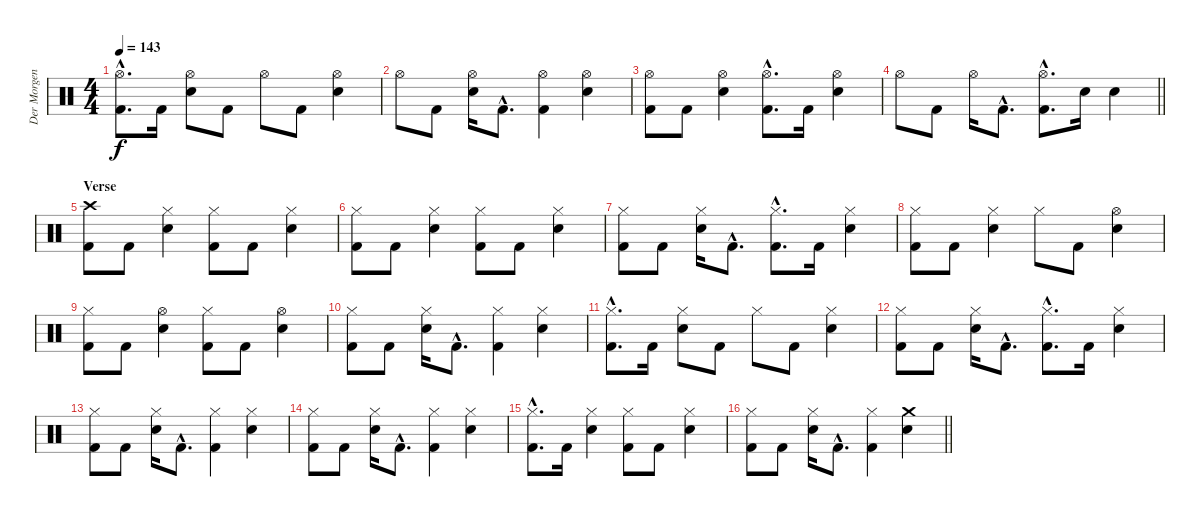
\track ("Der Morgenstern" "Der Morgen") {instrument percussion}
\staff {score}
\articulation defaults
\ts (4 4)
\tempo 143
\clef neutral
\ks c
("Hi-Hat (open)"{hac} "Kick (hit) 2"{hac}).8{d dy f} "Kick (hit) 2".16 ("Hi-Hat (open)" "Electric Snare (hit)").8 "Kick (hit) 2".8 "Hi-Hat (open)".8 "Kick (hit) 2".8 ("Hi-Hat (open)" "Electric Snare (hit)").4 |
"Hi-Hat (open)".8 "Kick (hit) 2".8 ("Hi-Hat (open)" "Electric Snare (hit)").16 "Kick (hit) 2"{hac}.8{d} ("Hi-Hat (open)" "Kick (hit) 2").4 ("Hi-Hat (open)" "Electric Snare (hit)").4 |
("Hi-Hat (open)" "Kick (hit) 2").8 "Kick (hit) 2".8 ("Hi-Hat (open)" "Electric Snare (hit)").4 ("Hi-Hat (open)"{hac} "Kick (hit) 2"{hac}).8{d} "Kick (hit) 2".16 ("Hi-Hat (open)" "Electric Snare (hit)").4 |
\barLineRight lightlight "Hi-Hat (open)".8 "Kick (hit) 2".8 "Hi-Hat (open)".16 "Kick (hit) 2"{hac}.8{d}
("Hi-Hat (open)"{hac} "Kick (hit) 2"{hac}).8{d} "Electric Snare (hit)".16 "Electric Snare (hit)".4 |
\section ("" "Verse")
("Crash high (hit)" "Kick (hit) 2").8 "Kick (hit) 2".8 ("Hi-Hat (closed)" "Electric Snare (hit)").4 ("Hi-Hat (closed)" "Kick (hit) 2").8 "Kick (hit) 2".8 ("Hi-Hat (closed)" "Electric Snare (hit)").4 |
("Hi-Hat (closed)" "Kick (hit) 2").8 "Kick (hit) 2".8 ("Hi-Hat (closed)" "Electric Snare (hit)").4 ("Hi-Hat (closed)" "Kick (hit) 2").8 "Kick (hit) 2".8 ("Hi-Hat (closed)" "Electric Snare (hit)").4 |
("Hi-Hat (closed)" "Kick (hit) 2").8 "Kick (hit) 2".8 ("Hi-Hat (closed)" "Electric Snare (hit)").16 "Kick (hit) 2"{hac}.8{d} ("Hi-Hat (closed)"{hac} "Kick (hit) 2"{hac}).8{d} "Kick (hit) 2".16 ("Hi-Hat (closed)" "Electric Snare (hit)").4 |
("Hi-Hat (closed)" "Kick (hit) 2").8 "Kick (hit) 2".8 ("Hi-Hat (closed)" "Electric Snare (hit)").4 "Hi-Hat (closed)".8 "Kick (hit) 2".8 ("Hi-Hat (open)" "Electric Snare (hit)").4 |
("Hi-Hat (closed)" "Kick (hit) 2").8 "Kick (hit) 2".8 ("Hi-Hat (open)" "Electric Snare (hit)").4 ("Hi-Hat (closed)" "Kick (hit) 2").8 "Kick (hit) 2".8 ("Hi-Hat (open)" "Electric Snare (hit)").4 |
("Hi-Hat (closed)" "Kick (hit) 2").8 "Kick (hit) 2".8 ("Hi-Hat (closed)" "Electric Snare (hit)").16 "Kick (hit) 2"{hac}.8{d} ("Hi-Hat (closed)" "Kick (hit) 2").4 ("Hi-Hat (closed)" "Electric Snare (hit)").4 |
("Hi-Hat (closed)"{hac} "Kick (hit) 2"{hac}).8{d} "Kick (hit) 2".16 ("Hi-Hat (closed)" "Electric Snare (hit)").8 "Kick (hit) 2".8 "Hi-Hat (closed)".8 "Kick (hit) 2".8 ("Hi-Hat (closed)" "Electric Snare (hit)").4 |
("Hi-Hat (closed)" "Kick (hit) 2").8 "Kick (hit) 2".8 ("Hi-Hat (closed)" "Electric Snare (hit)").16 "Kick (hit) 2"{hac}.8{d} ("Hi-Hat (closed)"{hac} "Kick (hit) 2"{hac}).8{d} "Kick (hit) 2".16 ("Hi-Hat (closed)" "Electric Snare (hit)").4 |
("Hi-Hat (closed)" "Kick (hit) 2").8 "Kick (hit) 2".8 ("Hi-Hat (closed)" "Electric Snare (hit)").16 "Kick (hit) 2"{hac}.8{d} ("Hi-Hat (closed)" "Kick (hit) 2").4 ("Hi-Hat (closed)" "Electric Snare (hit)").4 |
("Hi-Hat (closed)" "Kick (hit) 2").8 "Kick (hit) 2".8 ("Hi-Hat (closed)" "Electric Snare (hit)").16 "Kick (hit) 2"{hac}.8{d} ("Hi-Hat (closed)" "Kick (hit) 2").4 ("Hi-Hat (closed)" "Electric Snare (hit)").4 |
("Hi-Hat (closed)"{hac} "Kick (hit) 2"{hac}).8{d} "Kick (hit) 2".16 ("Hi-Hat (closed)" "Electric Snare (hit)").4 ("Hi-Hat (closed)" "Kick (hit) 2").8 "Kick (hit) 2".8 ("Hi-Hat (closed)" "Electric Snare (hit)").4 |
\barLineRight lightlight
("Hi-Hat (closed)" "Kick (hit) 2").8 "Kick (hit) 2".8 ("Hi-Hat (closed)" "Electric Snare (hit)").16 "Kick (hit) 2"{hac}.8{d} ("Hi-Hat (closed)" "Kick (hit) 2").4 ("Crash medium (hit)" "Electric Snare (hit)").4
